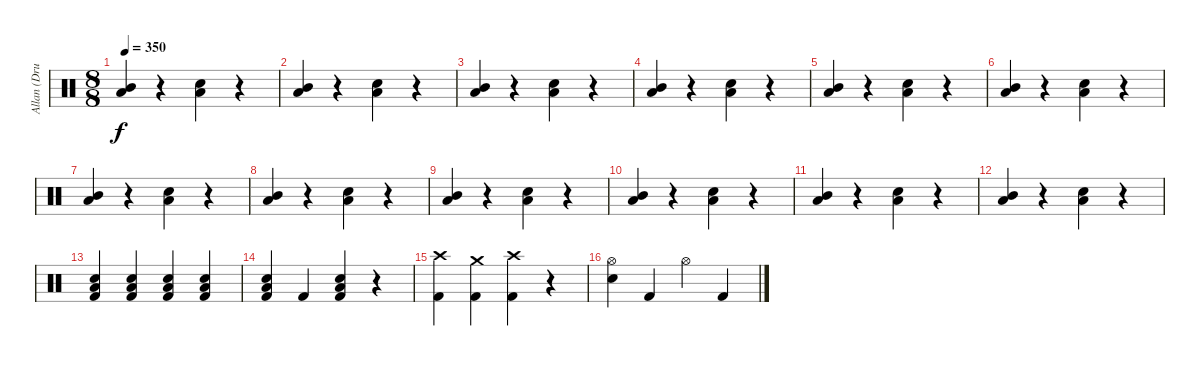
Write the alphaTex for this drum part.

\track ("Allan (Drums)" "Allan (Dru") {instrument percussion}
\staff {score}
\articulation defaults
\ts (8 8)
\tempo 350
\clef neutral
\ks c
("Low Tom (hit)" "Mid Tom (hit)").4{dy f} r.4 ("Low Tom (hit)" "Snare (hit) 2").4 r.4 |
("Low Tom (hit)" "Mid Tom (hit)").4 r.4 ("Low Tom (hit)" "Snare (hit) 2").4 r.4 |
("Low Tom (hit)" "Mid Tom (hit)").4 r.4 ("Low Tom (hit)" "Snare (hit) 2").4 r.4 |
("Low Tom (hit)" "Mid Tom (hit)").4 r.4 ("Low Tom (hit)" "Snare (hit) 2").4 r.4 |
("Low Tom (hit)" "Mid Tom (hit)").4 r.4 ("Low Tom (hit)" "Snare (hit) 2").4 r.4 |
("Low Tom (hit)" "Mid Tom (hit)").4 r.4 ("Low Tom (hit)" "Snare (hit) 2").4 r.4 |
("Low Tom (hit)" "Mid Tom (hit)").4 r.4 ("Low Tom (hit)" "Snare (hit) 2").4 r.4 |
("Low Tom (hit)" "Mid Tom (hit)").4 r.4 ("Low Tom (hit)" "Snare (hit) 2").4 r.4 |
("Low Tom (hit)" "Mid Tom (hit)").4 r.4 ("Low Tom (hit)" "Snare (hit) 2").4 r.4 |
("Low Tom (hit)" "Mid Tom (hit)").4 r.4 ("Low Tom (hit)" "Snare (hit) 2").4 r.4 |
("Low Tom (hit)" "Mid Tom (hit)").4 r.4 ("Low Tom (hit)" "Snare (hit) 2").4 r.4 |
("Low Tom (hit)" "Mid Tom (hit)").4 r.4 ("Low Tom (hit)" "Snare (hit) 2").4 r.4 |
("Kick (hit) 2" "Low Tom (hit)" "Snare (hit) 2").4 ("Kick (hit) 2" "Low Tom (hit)" "Snare (hit) 2").4 ("Kick (hit) 2" "Low Tom (hit)" "Snare (hit) 2").4 ("Kick (hit) 2" "Low Tom (hit)" "Snare (hit) 2").4 |
("Kick (hit) 2" "Low Tom (hit)" "Snare (hit) 2").4 "Kick (hit) 2".4 ("Kick (hit) 2" "Low Tom (hit)" "Snare (hit) 2").4 r.4 |
("Crash high (hit)" "Kick (hit) 2").4 ("Crash medium (hit)" "Kick (hit) 2").4 ("Crash high (hit)" "Kick (hit) 2").4 r.4 |
("Hi-Hat (open)" "Snare (hit) 2").4 "Kick (hit) 2".4 "Hi-Hat (open)".4 "Kick (hit) 2".4
